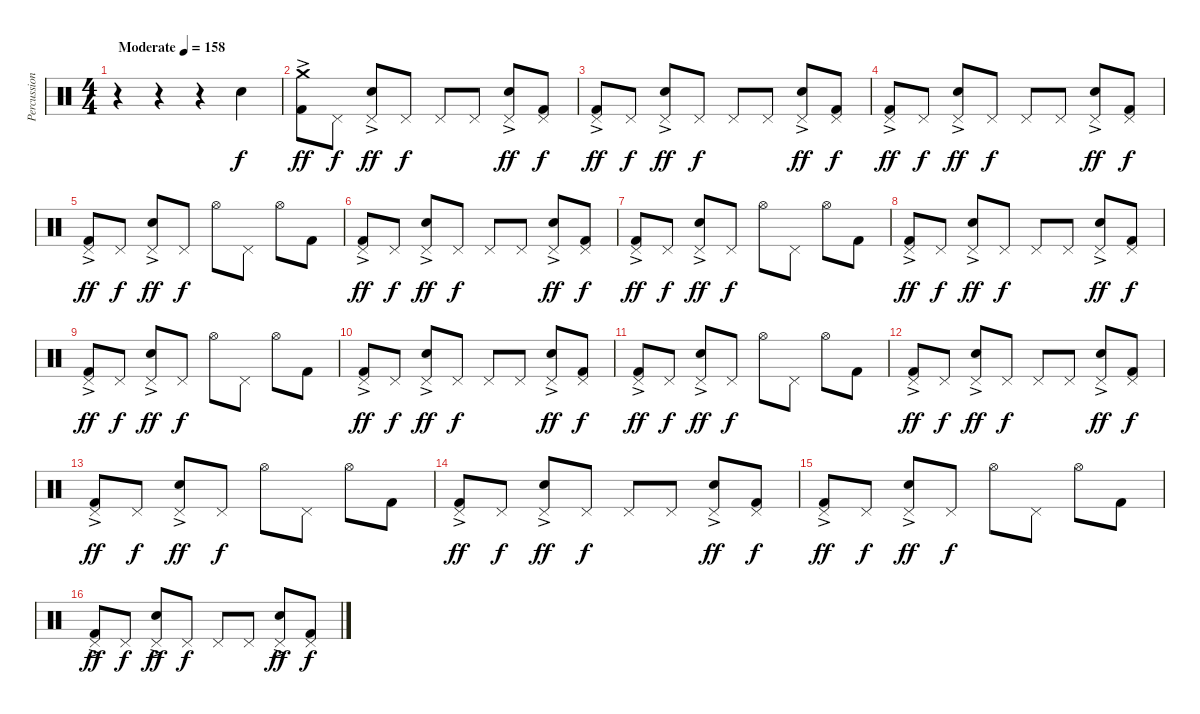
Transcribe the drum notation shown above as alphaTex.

\track ("Percussion" "Percussion") {instrument percussion bank 78}
\staff {score}
\articulation defaults
\ts (4 4)
\tempo (158 "Moderate")
\clef neutral
\ks c
r.4{dy f} r.4 r.4 "Electric Snare (hit)".4 |
("Crash medium (hit)" "Kick (hit) 2"{ac}).8{dy ff} "Pedal Hi-Hat (hit)".8{dy f} ("Pedal Hi-Hat (hit)"{ac} "Electric Snare (hit)").8{dy ff} "Pedal Hi-Hat (hit)".8{dy f} "Pedal Hi-Hat (hit)".8 "Pedal Hi-Hat (hit)".8 ("Pedal Hi-Hat (hit)"{ac} "Electric Snare (hit)").8{dy ff} ("Pedal Hi-Hat (hit)" "Kick (hit) 2").8{dy f} |
("Pedal Hi-Hat (hit)" "Kick (hit) 2"{ac}).8{dy ff} "Pedal Hi-Hat (hit)".8{dy f} ("Pedal Hi-Hat (hit)"{ac} "Electric Snare (hit)").8{dy ff} "Pedal Hi-Hat (hit)".8{dy f} "Pedal Hi-Hat (hit)".8 "Pedal Hi-Hat (hit)".8 ("Pedal Hi-Hat (hit)"{ac} "Electric Snare (hit)").8{dy ff} ("Pedal Hi-Hat (hit)" "Kick (hit) 2").8{dy f} |
("Pedal Hi-Hat (hit)" "Kick (hit) 2"{ac}).8{dy ff} "Pedal Hi-Hat (hit)".8{dy f} ("Pedal Hi-Hat (hit)"{ac} "Electric Snare (hit)").8{dy ff} "Pedal Hi-Hat (hit)".8{dy f} "Pedal Hi-Hat (hit)".8 "Pedal Hi-Hat (hit)".8 ("Pedal Hi-Hat (hit)"{ac} "Electric Snare (hit)").8{dy ff} ("Pedal Hi-Hat (hit)" "Kick (hit) 2").8{dy f} |
("Pedal Hi-Hat (hit)" "Kick (hit) 2"{ac}).8{dy ff} "Pedal Hi-Hat (hit)".8{dy f} ("Pedal Hi-Hat (hit)"{ac} "Electric Snare (hit)").8{dy ff} "Pedal Hi-Hat (hit)".8{dy f} "Hi-Hat (open)".8 "Pedal Hi-Hat (hit)".8 "Hi-Hat (open)".8 "Kick (hit) 2".8 |
("Pedal Hi-Hat (hit)" "Kick (hit) 2"{ac}).8{dy ff} "Pedal Hi-Hat (hit)".8{dy f} ("Pedal Hi-Hat (hit)"{ac} "Electric Snare (hit)").8{dy ff} "Pedal Hi-Hat (hit)".8{dy f} "Pedal Hi-Hat (hit)".8 "Pedal Hi-Hat (hit)".8 ("Pedal Hi-Hat (hit)"{ac} "Electric Snare (hit)").8{dy ff} ("Pedal Hi-Hat (hit)" "Kick (hit) 2").8{dy f} |
("Pedal Hi-Hat (hit)" "Kick (hit) 2"{ac}).8{dy ff} "Pedal Hi-Hat (hit)".8{dy f} ("Pedal Hi-Hat (hit)"{ac} "Electric Snare (hit)").8{dy ff} "Pedal Hi-Hat (hit)".8{dy f} "Hi-Hat (open)".8 "Pedal Hi-Hat (hit)".8 "Hi-Hat (open)".8 "Kick (hit) 2".8 |
("Pedal Hi-Hat (hit)" "Kick (hit) 2"{ac}).8{dy ff} "Pedal Hi-Hat (hit)".8{dy f} ("Pedal Hi-Hat (hit)"{ac} "Electric Snare (hit)").8{dy ff} "Pedal Hi-Hat (hit)".8{dy f} "Pedal Hi-Hat (hit)".8 "Pedal Hi-Hat (hit)".8 ("Pedal Hi-Hat (hit)"{ac} "Electric Snare (hit)").8{dy ff} ("Pedal Hi-Hat (hit)" "Kick (hit) 2").8{dy f} |
("Pedal Hi-Hat (hit)" "Kick (hit) 2"{ac}).8{dy ff} "Pedal Hi-Hat (hit)".8{dy f} ("Pedal Hi-Hat (hit)"{ac} "Electric Snare (hit)").8{dy ff} "Pedal Hi-Hat (hit)".8{dy f} "Hi-Hat (open)".8 "Pedal Hi-Hat (hit)".8 "Hi-Hat (open)".8 "Kick (hit) 2".8 |
("Pedal Hi-Hat (hit)" "Kick (hit) 2"{ac}).8{dy ff} "Pedal Hi-Hat (hit)".8{dy f} ("Pedal Hi-Hat (hit)"{ac} "Electric Snare (hit)").8{dy ff} "Pedal Hi-Hat (hit)".8{dy f} "Pedal Hi-Hat (hit)".8 "Pedal Hi-Hat (hit)".8 ("Pedal Hi-Hat (hit)"{ac} "Electric Snare (hit)").8{dy ff} ("Pedal Hi-Hat (hit)" "Kick (hit) 2").8{dy f} |
("Pedal Hi-Hat (hit)" "Kick (hit) 2"{ac}).8{dy ff} "Pedal Hi-Hat (hit)".8{dy f} ("Pedal Hi-Hat (hit)"{ac} "Electric Snare (hit)").8{dy ff} "Pedal Hi-Hat (hit)".8{dy f} "Hi-Hat (open)".8 "Pedal Hi-Hat (hit)".8 "Hi-Hat (open)".8 "Kick (hit) 2".8 |
("Pedal Hi-Hat (hit)" "Kick (hit) 2"{ac}).8{dy ff} "Pedal Hi-Hat (hit)".8{dy f} ("Pedal Hi-Hat (hit)"{ac} "Electric Snare (hit)").8{dy ff} "Pedal Hi-Hat (hit)".8{dy f} "Pedal Hi-Hat (hit)".8 "Pedal Hi-Hat (hit)".8 ("Pedal Hi-Hat (hit)"{ac} "Electric Snare (hit)").8{dy ff} ("Pedal Hi-Hat (hit)" "Kick (hit) 2").8{dy f} |
("Pedal Hi-Hat (hit)" "Kick (hit) 2"{ac}).8{dy ff} "Pedal Hi-Hat (hit)".8{dy f} ("Pedal Hi-Hat (hit)"{ac} "Electric Snare (hit)").8{dy ff} "Pedal Hi-Hat (hit)".8{dy f} "Hi-Hat (open)".8 "Pedal Hi-Hat (hit)".8 "Hi-Hat (open)".8 "Kick (hit) 2".8 |
("Pedal Hi-Hat (hit)" "Kick (hit) 2"{ac}).8{dy ff} "Pedal Hi-Hat (hit)".8{dy f} ("Pedal Hi-Hat (hit)"{ac} "Electric Snare (hit)").8{dy ff} "Pedal Hi-Hat (hit)".8{dy f} "Pedal Hi-Hat (hit)".8 "Pedal Hi-Hat (hit)".8 ("Pedal Hi-Hat (hit)"{ac} "Electric Snare (hit)").8{dy ff} ("Pedal Hi-Hat (hit)" "Kick (hit) 2").8{dy f} |
("Pedal Hi-Hat (hit)" "Kick (hit) 2"{ac}).8{dy ff} "Pedal Hi-Hat (hit)".8{dy f} ("Pedal Hi-Hat (hit)"{ac} "Electric Snare (hit)").8{dy ff} "Pedal Hi-Hat (hit)".8{dy f} "Hi-Hat (open)".8 "Pedal Hi-Hat (hit)".8 "Hi-Hat (open)".8 "Kick (hit) 2".8 |
("Pedal Hi-Hat (hit)" "Kick (hit) 2"{ac}).8{dy ff} "Pedal Hi-Hat (hit)".8{dy f} ("Pedal Hi-Hat (hit)"{ac} "Electric Snare (hit)").8{dy ff} "Pedal Hi-Hat (hit)".8{dy f} "Pedal Hi-Hat (hit)".8 "Pedal Hi-Hat (hit)".8 ("Pedal Hi-Hat (hit)"{ac} "Electric Snare (hit)").8{dy ff} ("Pedal Hi-Hat (hit)" "Kick (hit) 2").8{dy f}
